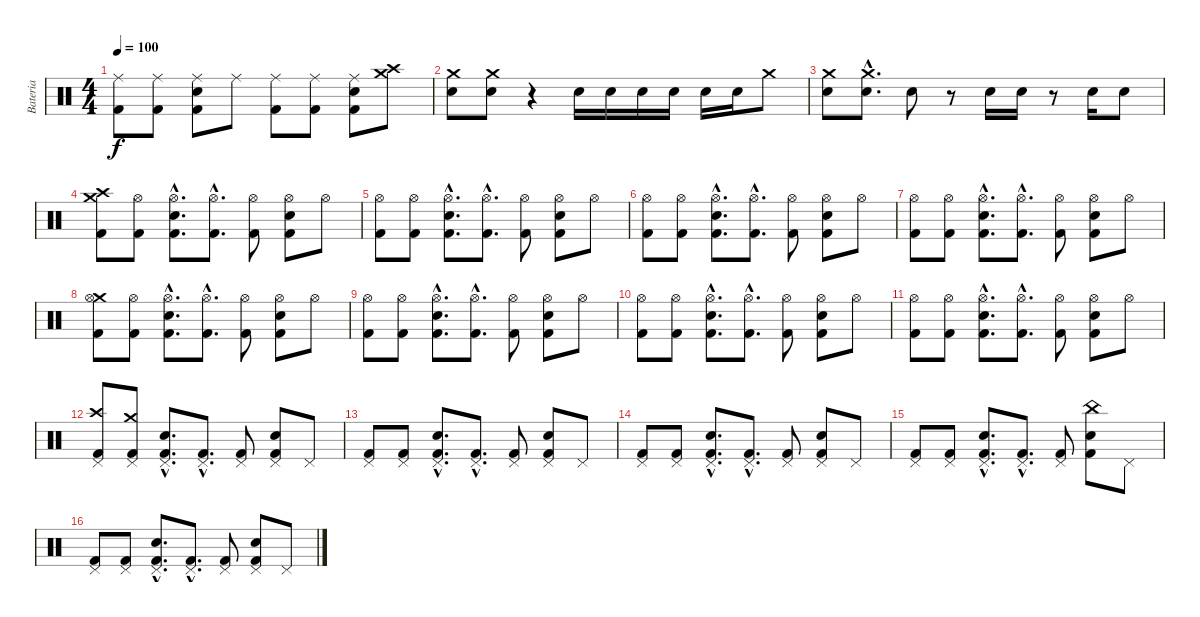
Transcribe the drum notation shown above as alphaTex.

\track ("Bateria" "Bateria") {instrument percussion}
\staff {score}
\articulation defaults
\ts (4 4)
\tempo 100
\clef neutral
\ks c
("Kick (hit) 2" "Ride (middle)").8{dy f} ("Kick (hit) 2" "Ride (middle)").8 ("Kick (hit) 2" "Electric Snare (hit)" "Ride (middle)").8 "Ride (middle)".8 ("Kick (hit) 2" "Ride (middle)").8 ("Kick (hit) 2" "Ride (middle)").8 ("Kick (hit) 2" "Electric Snare (hit)" "Ride (middle)").8 ("Crash high (hit)" "Crash medium (hit)").8 |
("Crash medium (hit)" "Electric Snare (hit)").8 ("Crash medium (hit)" "Electric Snare (hit)").8 r.4 "Electric Snare (hit)".16 "Electric Snare (hit)".16 "Electric Snare (hit)".16 "Electric Snare (hit)".16 "Electric Snare (hit)".16 "Electric Snare (hit)".16 "Crash medium (hit)".8 |
("Crash medium (hit)" "Electric Snare (hit)").8 ("Crash medium (hit)"{hac} "Electric Snare (hit)"{hac}).8{d} "Electric Snare (hit)".8 r.8 "Electric Snare (hit)".16 "Electric Snare (hit)".16 r.8 "Electric Snare (hit)".16 "Electric Snare (hit)".8 |
("Kick (hit) 2" "Crash medium (hit)" "Crash high (hit)").8 ("Kick (hit) 2" "Hi-Hat (open)").8 ("Kick (hit) 2"{hac} "Electric Snare (hit)"{hac} "Hi-Hat (open)"{hac}).8{d} ("Kick (hit) 2"{hac} "Hi-Hat (open)"{hac}).8{d} ("Kick (hit) 2" "Hi-Hat (open)").8 ("Kick (hit) 2" "Electric Snare (hit)" "Hi-Hat (open)").8 "Hi-Hat (open)".8 |
("Kick (hit) 2" "Hi-Hat (open)").8 ("Kick (hit) 2" "Hi-Hat (open)").8 ("Kick (hit) 2"{hac} "Electric Snare (hit)"{hac} "Hi-Hat (open)"{hac}).8{d} ("Kick (hit) 2"{hac} "Hi-Hat (open)"{hac}).8{d} ("Kick (hit) 2" "Hi-Hat (open)").8 ("Kick (hit) 2" "Electric Snare (hit)" "Hi-Hat (open)").8 "Hi-Hat (open)".8 |
("Kick (hit) 2" "Hi-Hat (open)").8 ("Kick (hit) 2" "Hi-Hat (open)").8 ("Kick (hit) 2"{hac} "Electric Snare (hit)"{hac} "Hi-Hat (open)"{hac}).8{d} ("Kick (hit) 2"{hac} "Hi-Hat (open)"{hac}).8{d} ("Kick (hit) 2" "Hi-Hat (open)").8 ("Kick (hit) 2" "Electric Snare (hit)" "Hi-Hat (open)").8 "Hi-Hat (open)".8 |
("Kick (hit) 2" "Hi-Hat (open)").8 ("Kick (hit) 2" "Hi-Hat (open)").8 ("Kick (hit) 2"{hac} "Electric Snare (hit)"{hac} "Hi-Hat (open)"{hac}).8{d} ("Kick (hit) 2"{hac} "Hi-Hat (open)"{hac}).8{d} ("Kick (hit) 2" "Hi-Hat (open)").8 ("Kick (hit) 2" "Electric Snare (hit)" "Hi-Hat (open)").8 "Hi-Hat (open)".8 |
("Kick (hit) 2" "Crash medium (hit)" "Hi-Hat (open)").8 ("Kick (hit) 2" "Hi-Hat (open)").8 ("Kick (hit) 2"{hac} "Electric Snare (hit)"{hac} "Hi-Hat (open)"{hac}).8{d} ("Kick (hit) 2"{hac} "Hi-Hat (open)"{hac}).8{d} ("Kick (hit) 2" "Hi-Hat (open)").8 ("Kick (hit) 2" "Electric Snare (hit)" "Hi-Hat (open)").8 "Hi-Hat (open)".8 |
("Kick (hit) 2" "Hi-Hat (open)").8 ("Kick (hit) 2" "Hi-Hat (open)").8 ("Kick (hit) 2"{hac} "Electric Snare (hit)"{hac} "Hi-Hat (open)"{hac}).8{d} ("Kick (hit) 2"{hac} "Hi-Hat (open)"{hac}).8{d} ("Kick (hit) 2" "Hi-Hat (open)").8 ("Kick (hit) 2" "Electric Snare (hit)" "Hi-Hat (open)").8 "Hi-Hat (open)".8 |
("Kick (hit) 2" "Hi-Hat (open)").8 ("Kick (hit) 2" "Hi-Hat (open)").8 ("Kick (hit) 2"{hac} "Electric Snare (hit)"{hac} "Hi-Hat (open)"{hac}).8{d} ("Kick (hit) 2"{hac} "Hi-Hat (open)"{hac}).8{d} ("Kick (hit) 2" "Hi-Hat (open)").8 ("Kick (hit) 2" "Electric Snare (hit)" "Hi-Hat (open)").8 "Hi-Hat (open)".8 |
("Kick (hit) 2" "Hi-Hat (open)").8 ("Kick (hit) 2" "Hi-Hat (open)").8 ("Kick (hit) 2"{hac} "Electric Snare (hit)"{hac} "Hi-Hat (open)"{hac}).8{d} ("Kick (hit) 2"{hac} "Hi-Hat (open)"{hac}).8{d} ("Kick (hit) 2" "Hi-Hat (open)").8 ("Kick (hit) 2" "Electric Snare (hit)" "Hi-Hat (open)").8 "Hi-Hat (open)".8 |
("Kick (hit) 2" "Crash high (hit)" "Pedal Hi-Hat (hit)").8 ("Kick (hit) 2" "Crash medium (hit)" "Pedal Hi-Hat (hit)").8 ("Kick (hit) 2"{hac} "Electric Snare (hit)"{hac} "Pedal Hi-Hat (hit)"{hac}).8{d} ("Kick (hit) 2"{hac} "Pedal Hi-Hat (hit)"{hac}).8{d} ("Kick (hit) 2" "Pedal Hi-Hat (hit)").8 ("Kick (hit) 2" "Electric Snare (hit)" "Pedal Hi-Hat (hit)").8 "Pedal Hi-Hat (hit)".8 |
("Kick (hit) 2" "Pedal Hi-Hat (hit)").8 ("Kick (hit) 2" "Pedal Hi-Hat (hit)").8 ("Kick (hit) 2"{hac} "Electric Snare (hit)"{hac} "Pedal Hi-Hat (hit)"{hac}).8{d} ("Kick (hit) 2"{hac} "Pedal Hi-Hat (hit)"{hac}).8{d} ("Kick (hit) 2" "Pedal Hi-Hat (hit)").8 ("Kick (hit) 2" "Electric Snare (hit)" "Pedal Hi-Hat (hit)").8 "Pedal Hi-Hat (hit)".8 |
("Kick (hit) 2" "Pedal Hi-Hat (hit)").8 ("Kick (hit) 2" "Pedal Hi-Hat (hit)").8 ("Kick (hit) 2"{hac} "Electric Snare (hit)"{hac} "Pedal Hi-Hat (hit)"{hac}).8{d} ("Kick (hit) 2"{hac} "Pedal Hi-Hat (hit)"{hac}).8{d} ("Kick (hit) 2" "Pedal Hi-Hat (hit)").8 ("Kick (hit) 2" "Electric Snare (hit)" "Pedal Hi-Hat (hit)").8 "Pedal Hi-Hat (hit)".8 |
("Kick (hit) 2" "Pedal Hi-Hat (hit)").8 ("Kick (hit) 2" "Pedal Hi-Hat (hit)").8 ("Kick (hit) 2"{hac} "Electric Snare (hit)"{hac} "Pedal Hi-Hat (hit)"{hac}).8{d} ("Kick (hit) 2"{hac} "Pedal Hi-Hat (hit)"{hac}).8{d} ("Kick (hit) 2" "Pedal Hi-Hat (hit)").8 ("Kick (hit) 2" "Electric Snare (hit)" "China (hit)").8 "Pedal Hi-Hat (hit)".8 |
("Kick (hit) 2" "Pedal Hi-Hat (hit)").8 ("Kick (hit) 2" "Pedal Hi-Hat (hit)").8 ("Kick (hit) 2"{hac} "Electric Snare (hit)"{hac} "Pedal Hi-Hat (hit)"{hac}).8{d} ("Kick (hit) 2"{hac} "Pedal Hi-Hat (hit)"{hac}).8{d} ("Kick (hit) 2" "Pedal Hi-Hat (hit)").8 ("Kick (hit) 2" "Electric Snare (hit)" "Pedal Hi-Hat (hit)").8 "Pedal Hi-Hat (hit)".8
